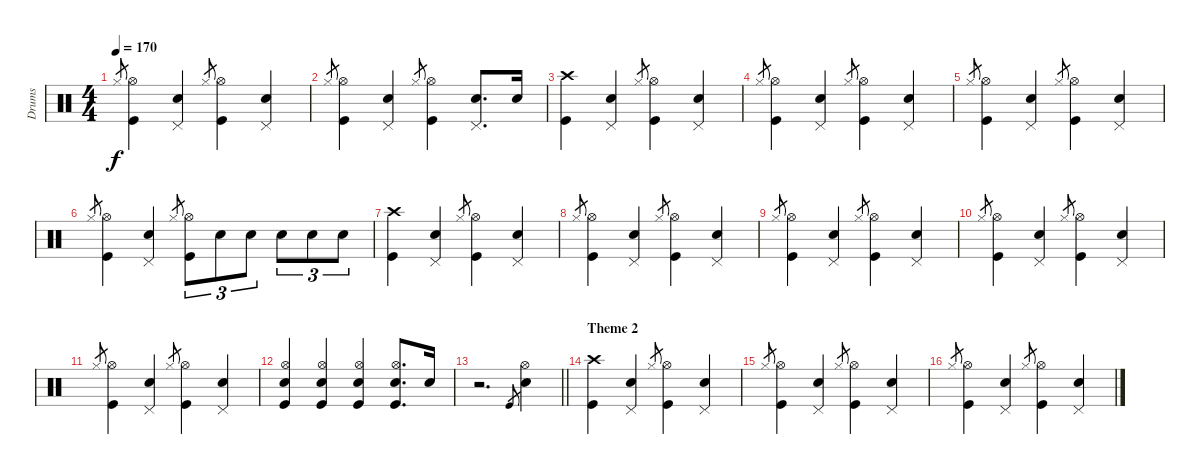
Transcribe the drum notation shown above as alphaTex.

\track ("Drums" "Drums") {instrument percussion}
\staff {score}
\articulation defaults
\ts (4 4)
\tempo 170
\clef neutral
\ks aminor "Hi-Hat (closed)".8{gr dy f}
("Kick (hit)" "Hi-Hat (open)").4 ("Electric Snare (hit)" "Pedal Hi-Hat (hit)").4 "Hi-Hat (closed)".8{gr} ("Kick (hit)" "Hi-Hat (open)").4 ("Electric Snare (hit)" "Pedal Hi-Hat (hit)").4 |
"Hi-Hat (closed)".8{gr} ("Kick (hit)" "Hi-Hat (open)").4 ("Electric Snare (hit)" "Pedal Hi-Hat (hit)").4 "Hi-Hat (closed)".8{gr} ("Kick (hit)" "Hi-Hat (open)").4 ("Electric Snare (hit)" "Pedal Hi-Hat (hit)").8{d} "Electric Snare (hit)".16 |
("Kick (hit)" "Crash high (hit)").4 ("Electric Snare (hit)" "Pedal Hi-Hat (hit)").4 "Hi-Hat (closed)".8{gr} ("Kick (hit)" "Hi-Hat (open)").4 ("Electric Snare (hit)" "Pedal Hi-Hat (hit)").4 |
"Hi-Hat (closed)".8{gr} ("Kick (hit)" "Hi-Hat (open)").4 ("Electric Snare (hit)" "Pedal Hi-Hat (hit)").4 "Hi-Hat (closed)".8{gr} ("Kick (hit)" "Hi-Hat (open)").4 ("Electric Snare (hit)" "Pedal Hi-Hat (hit)").4 |
"Hi-Hat (closed)".8{gr} ("Kick (hit)" "Hi-Hat (open)").4 ("Electric Snare (hit)" "Pedal Hi-Hat (hit)").4 "Hi-Hat (closed)".8{gr} ("Kick (hit)" "Hi-Hat (open)").4 ("Electric Snare (hit)" "Pedal Hi-Hat (hit)").4 |
"Hi-Hat (closed)".8{gr} ("Kick (hit)" "Hi-Hat (open)").4 ("Electric Snare (hit)" "Pedal Hi-Hat (hit)").4 "Hi-Hat (closed)".8{gr} ("Kick (hit)" "Hi-Hat (open)").8{tu (3 2)} "Electric Snare (hit)".8{tu (3 2)} "Electric Snare (hit)".8{tu (3 2)} "Electric Snare (hit)".8{tu (3 2)} "Electric Snare (hit)".8{tu (3 2)} "Electric Snare (hit)".8{tu (3 2)} |
("Kick (hit)" "Crash high (hit)").4 ("Electric Snare (hit)" "Pedal Hi-Hat (hit)").4 "Hi-Hat (closed)".8{gr} ("Kick (hit)" "Hi-Hat (open)").4 ("Electric Snare (hit)" "Pedal Hi-Hat (hit)").4 |
"Hi-Hat (closed)".8{gr} ("Kick (hit)" "Hi-Hat (open)").4 ("Electric Snare (hit)" "Pedal Hi-Hat (hit)").4 "Hi-Hat (closed)".8{gr} ("Kick (hit)" "Hi-Hat (open)").4 ("Electric Snare (hit)" "Pedal Hi-Hat (hit)").4 |
"Hi-Hat (closed)".8{gr} ("Kick (hit)" "Hi-Hat (open)").4 ("Electric Snare (hit)" "Pedal Hi-Hat (hit)").4 "Hi-Hat (closed)".8{gr} ("Kick (hit)" "Hi-Hat (open)").4 ("Electric Snare (hit)" "Pedal Hi-Hat (hit)").4 |
"Hi-Hat (closed)".8{gr} ("Kick (hit)" "Hi-Hat (open)").4 ("Electric Snare (hit)" "Pedal Hi-Hat (hit)").4 "Hi-Hat (closed)".8{gr} ("Kick (hit)" "Hi-Hat (open)").4 ("Electric Snare (hit)" "Pedal Hi-Hat (hit)").4 |
"Hi-Hat (closed)".8{gr} ("Kick (hit)" "Hi-Hat (open)").4 ("Electric Snare (hit)" "Pedal Hi-Hat (hit)").4 "Hi-Hat (closed)".8{gr} ("Kick (hit)" "Hi-Hat (open)").4 ("Electric Snare (hit)" "Pedal Hi-Hat (hit)").4 |
("Kick (hit)" "Hi-Hat (open)" "Electric Snare (hit)").4 ("Kick (hit)" "Hi-Hat (open)" "Electric Snare (hit)").4 ("Kick (hit)" "Hi-Hat (open)" "Electric Snare (hit)").4 ("Kick (hit)" "Hi-Hat (open)" "Electric Snare (hit)").8{d} "Electric Snare (hit)".16 |
\barLineRight lightlight
r.2{d} "Kick (hit)".8{gr} ("Hi-Hat (open)" "Electric Snare (hit)").4 |
\section ("" "Theme 2")
("Kick (hit)" "Crash high (hit)").4 ("Electric Snare (hit)" "Pedal Hi-Hat (hit)").4 "Hi-Hat (closed)".8{gr} ("Kick (hit)" "Hi-Hat (open)").4 ("Electric Snare (hit)" "Pedal Hi-Hat (hit)").4 |
"Hi-Hat (closed)".8{gr} ("Kick (hit)" "Hi-Hat (open)").4 ("Electric Snare (hit)" "Pedal Hi-Hat (hit)").4 "Hi-Hat (closed)".8{gr} ("Kick (hit)" "Hi-Hat (open)").4 ("Electric Snare (hit)" "Pedal Hi-Hat (hit)").4 |
"Hi-Hat (closed)".8{gr} ("Kick (hit)" "Hi-Hat (open)").4 ("Electric Snare (hit)" "Pedal Hi-Hat (hit)").4 "Hi-Hat (closed)".8{gr} ("Kick (hit)" "Hi-Hat (open)").4 ("Electric Snare (hit)" "Pedal Hi-Hat (hit)").4
